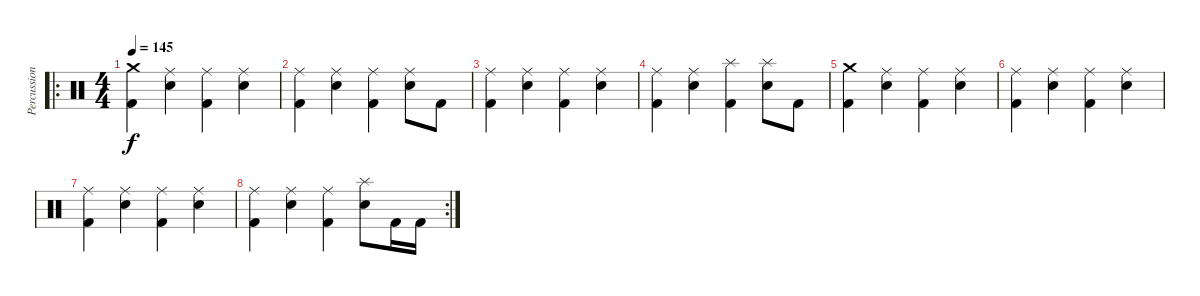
\track ("Percussions" "Percussion") {instrument percussion}
\staff {score}
\articulation defaults
\ro
\ts (4 4)
\tempo 145
\clef neutral
\ks c
("Crash medium (hit)" "Kick (hit) 2").4{dy f} ("Ride (middle)" "Snare (hit) 2").4 ("Ride (middle)" "Kick (hit) 2").4 ("Ride (middle)" "Snare (hit) 2").4 |
("Ride (middle)" "Kick (hit) 2").4 ("Ride (middle)" "Snare (hit) 2").4 ("Ride (middle)" "Kick (hit) 2").4 ("Ride (middle)" "Snare (hit) 2").8 "Kick (hit) 2".8 |
("Ride (middle)" "Kick (hit) 2").4 ("Ride (middle)" "Snare (hit) 2").4 ("Ride (middle)" "Kick (hit) 2").4 ("Ride (middle)" "Snare (hit) 2").4 |
("Ride (middle)" "Kick (hit) 2").4 ("Ride (middle)" "Snare (hit) 2").4 ("Splash (hit)" "Kick (hit) 2").4 ("Splash (hit)" "Snare (hit) 2").8 "Kick (hit) 2".8 |
("Crash medium (hit)" "Kick (hit) 2").4 ("Ride (middle)" "Snare (hit) 2").4 ("Ride (middle)" "Kick (hit) 2").4 ("Ride (middle)" "Snare (hit) 2").4 |
("Ride (middle)" "Kick (hit) 2").4 ("Ride (middle)" "Snare (hit) 2").4 ("Ride (middle)" "Kick (hit) 2").4 ("Ride (middle)" "Snare (hit) 2").4 |
("Ride (middle)" "Kick (hit) 2").4 ("Ride (middle)" "Snare (hit) 2").4 ("Ride (middle)" "Kick (hit) 2").4 ("Ride (middle)" "Snare (hit) 2").4 |
\rc 2
("Ride (middle)" "Kick (hit) 2").4 ("Ride (middle)" "Snare (hit) 2").4 ("Ride (middle)" "Kick (hit) 2").4 ("Splash (hit)" "Snare (hit) 2").8 "Kick (hit) 2".16 "Kick (hit) 2".16
